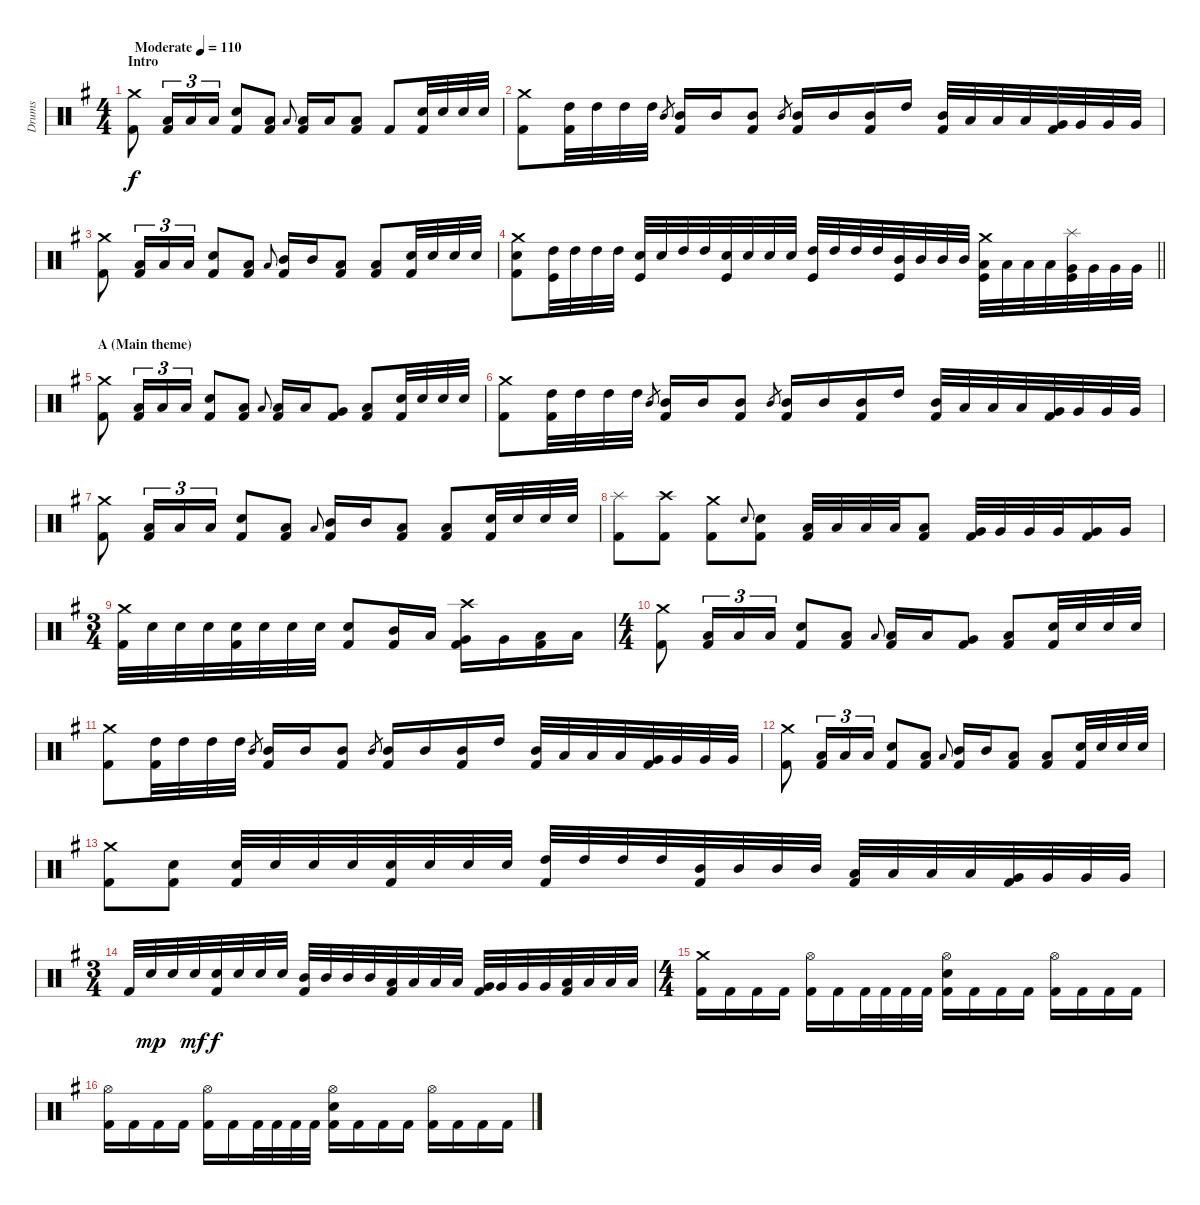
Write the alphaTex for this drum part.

\track ("Drums" "Drums") {instrument percussion}
\staff {score}
\articulation defaults
\ts (4 4)
\section ("" "Intro")
\tempo (110 "Moderate")
\clef neutral
\ks eminor
("Crash medium (hit)" "Kick (hit) 2").8{dy f} ("Low Tom (hit)" "Kick (hit) 2").16{tu (3 2)} "Low Tom (hit)".16{tu (3 2)} "Low Tom (hit)".16{tu (3 2)} ("Electric Snare (hit)" "Kick (hit) 2").8 ("Low Tom (hit)" "Kick (hit) 2").8 "Low Tom (hit)".8{gr onbeat} ("Low Tom (hit)" "Kick (hit) 2").16 "Low Tom (hit)".16 ("Low Tom (hit)" "Kick (hit) 2").8 "Kick (hit) 2".8 ("Snare (hit) 2" "Kick (hit) 2").32 "Snare (hit) 2".32 "Snare (hit) 2".32 "Snare (hit) 2".32 |
("Crash medium (hit)" "Kick (hit) 2").8 ("High Tom (hit)" "Kick (hit) 2").32 "High Tom (hit)".32 "High Tom (hit)".32 "High Tom (hit)".32 "Mid Tom (hit)".8{gr} ("Mid Tom (hit)" "Kick (hit) 2").16 "Mid Tom (hit)".16 ("Mid Tom (hit)" "Kick (hit) 2").8 "Mid Tom (hit)".8{gr} ("Mid Tom (hit)" "Kick (hit) 2").16 "Mid Tom (hit)".16 ("Mid Tom (hit)" "Kick (hit) 2").16 "High Tom (hit)".16 ("Mid Tom (hit)" "Kick (hit) 2").32 "Low Tom (hit)".32 "Low Tom (hit)".32 "Low Tom (hit)".32 ("Very Low Tom (hit)" "Kick (hit) 2").32 "Very Low Tom (hit)".32 "Very Low Tom (hit)".32 "Very Low Tom (hit)".32 |
("Crash medium (hit)" "Kick (hit) 2").8 ("Low Tom (hit)" "Kick (hit) 2").16{tu (3 2)} "Low Tom (hit)".16{tu (3 2)} "Low Tom (hit)".16{tu (3 2)} ("Electric Snare (hit)" "Kick (hit) 2").8 ("Low Tom (hit)" "Kick (hit) 2").8 "Low Tom (hit)".8{gr onbeat} ("Mid Tom (hit)" "Kick (hit) 2").16 "Mid Tom (hit)".16 ("Low Floor Tom (hit)" "Kick (hit) 2").8 ("Low Floor Tom (hit)" "Kick (hit) 2").8 ("Snare (hit) 2" "Kick (hit) 2").32 "Snare (hit) 2".32 "Snare (hit) 2".32 "Snare (hit) 2".32 |
\barLineRight lightlight
("Crash medium (hit)" "Snare (hit) 2" "Kick (hit) 2").8 ("High Tom (hit)" "Kick (hit)").32 "High Tom (hit)".32 "High Tom (hit)".32 "High Tom (hit)".32 ("Electric Snare (hit)" "Kick (hit)").32 "Electric Snare (hit)".32 "High Tom (hit)".32 "High Tom (hit)".32 ("Electric Snare (hit)" "Kick (hit)").32 "Electric Snare (hit)".32 "Electric Snare (hit)".32 "Electric Snare (hit)".32 ("High Tom (hit)" "Kick (hit)").32 "High Tom (hit)".32 "High Tom (hit)".32 "High Tom (hit)".32 ("Mid Tom (hit)" "Kick (hit)").32 "Mid Tom (hit)".32 "Mid Tom (hit)".32 "Mid Tom (hit)".32 ("Crash medium (hit)" "Low Tom (hit)" "Kick (hit)").32 "Low Tom (hit)".32 "Low Tom (hit)".32 "Low Tom (hit)".32 ("Splash (hit)" "Very Low Tom (hit)" "Kick (hit)").32 "Very Low Tom (hit)".32 "Very Low Tom (hit)".32 "Very Low Tom (hit)".32 |
\section ("" "A (Main theme)")
("Crash medium (hit)" "Kick (hit) 2").8 ("Low Tom (hit)" "Kick (hit) 2").16{tu (3 2)} "Low Tom (hit)".16{tu (3 2)} "Low Tom (hit)".16{tu (3 2)} ("Electric Snare (hit)" "Kick (hit) 2").8 ("Low Tom (hit)" "Kick (hit) 2").8 "Low Tom (hit)".8{gr onbeat} ("Low Tom (hit)" "Kick (hit) 2").16 "Low Tom (hit)".16 ("Very Low Tom (hit)" "Kick (hit) 2").8 ("Low Floor Tom (hit)" "Kick (hit) 2").8 ("Snare (hit) 2" "Kick (hit) 2").32 "Snare (hit) 2".32 "Snare (hit) 2".32 "Snare (hit) 2".32 |
("Crash medium (hit)" "Kick (hit) 2").8 ("High Tom (hit)" "Kick (hit) 2").32 "High Tom (hit)".32 "High Tom (hit)".32 "High Tom (hit)".32 "Mid Tom (hit)".8{gr} ("Mid Tom (hit)" "Kick (hit) 2").16 "Mid Tom (hit)".16 ("Mid Tom (hit)" "Kick (hit) 2").8 "Mid Tom (hit)".8{gr} ("Mid Tom (hit)" "Kick (hit) 2").16 "Mid Tom (hit)".16 ("Mid Tom (hit)" "Kick (hit) 2").16 "High Tom (hit)".16 ("Mid Tom (hit)" "Kick (hit) 2").32 "Low Tom (hit)".32 "Low Tom (hit)".32 "Low Tom (hit)".32 ("Very Low Tom (hit)" "Kick (hit) 2").32 "Very Low Tom (hit)".32 "Very Low Tom (hit)".32 "Very Low Tom (hit)".32 |
("Crash medium (hit)" "Kick (hit) 2").8 ("Low Tom (hit)" "Kick (hit) 2").16{tu (3 2)} "Low Tom (hit)".16{tu (3 2)} "Low Tom (hit)".16{tu (3 2)} ("Electric Snare (hit)" "Kick (hit) 2").8 ("Low Tom (hit)" "Kick (hit) 2").8 "Low Tom (hit)".8{gr onbeat} ("Mid Tom (hit)" "Kick (hit) 2").16 "Mid Tom (hit)".16 ("Low Floor Tom (hit)" "Kick (hit) 2").8 ("Low Floor Tom (hit)" "Kick (hit) 2").8 ("Snare (hit) 2" "Kick (hit) 2").32 "Snare (hit) 2".32 "Snare (hit) 2".32 "Snare (hit) 2".32 |
("Splash (hit)" "Kick (hit) 2").8 ("Crash high (hit)" "Kick (hit) 2").8 ("Crash medium (hit)" "Kick (hit) 2").8 "Electric Snare (hit)".8{gr onbeat} ("Electric Snare (hit)" "Kick (hit) 2").8 ("Low Tom (hit)" "Kick (hit) 2").32 "Low Tom (hit)".32 "Low Tom (hit)".32 "Low Tom (hit)".32 ("Low Tom (hit)" "Kick (hit) 2").8 ("Very Low Tom (hit)" "Kick (hit) 2").32 "Very Low Tom (hit)".32 "Very Low Tom (hit)".32 "Very Low Tom (hit)".32 ("Very Low Tom (hit)" "Kick (hit) 2").16 "Very Low Tom (hit)".16 |
\ts (3 4)
("Crash medium (hit)" "Kick (hit) 2").32 "Snare (hit) 2".32 "Snare (hit) 2".32 "Snare (hit) 2".32 ("Snare (hit) 2" "Kick (hit) 2").32 "Snare (hit) 2".32 "Snare (hit) 2".32 "Snare (hit) 2".32 ("Electric Snare (hit)" "Kick (hit) 2").8 ("Mid Tom (hit)" "Kick (hit) 2").16 "Low Tom (hit)".16 ("Crash high (hit)" "Very Low Tom (hit)" "Kick (hit) 2").16 "Very Low Tom (hit)".16 ("Low Floor Tom (hit)" "Kick (hit) 2").16 "Low Floor Tom (hit)".16 |
\ts (4 4)
("Crash medium (hit)" "Kick (hit) 2").8 ("Low Tom (hit)" "Kick (hit) 2").16{tu (3 2)} "Low Tom (hit)".16{tu (3 2)} "Low Tom (hit)".16{tu (3 2)} ("Electric Snare (hit)" "Kick (hit) 2").8 ("Low Tom (hit)" "Kick (hit) 2").8 "Low Tom (hit)".8{gr onbeat} ("Low Tom (hit)" "Kick (hit) 2").16 "Low Tom (hit)".16 ("Very Low Tom (hit)" "Kick (hit) 2").8 ("Low Floor Tom (hit)" "Kick (hit) 2").8 ("Snare (hit) 2" "Kick (hit) 2").32 "Snare (hit) 2".32 "Snare (hit) 2".32 "Snare (hit) 2".32 |
("Crash medium (hit)" "Kick (hit) 2").8 ("High Tom (hit)" "Kick (hit) 2").32 "High Tom (hit)".32 "High Tom (hit)".32 "High Tom (hit)".32 "Mid Tom (hit)".8{gr} ("Mid Tom (hit)" "Kick (hit) 2").16 "Mid Tom (hit)".16 ("Mid Tom (hit)" "Kick (hit) 2").8 "Mid Tom (hit)".8{gr} ("Mid Tom (hit)" "Kick (hit) 2").16 "Mid Tom (hit)".16 ("Mid Tom (hit)" "Kick (hit) 2").16 "High Tom (hit)".16 ("Mid Tom (hit)" "Kick (hit) 2").32 "Low Tom (hit)".32 "Low Tom (hit)".32 "Low Tom (hit)".32 ("Very Low Tom (hit)" "Kick (hit) 2").32 "Very Low Tom (hit)".32 "Very Low Tom (hit)".32 "Very Low Tom (hit)".32 |
("Crash medium (hit)" "Kick (hit) 2").8 ("Low Tom (hit)" "Kick (hit) 2").16{tu (3 2)} "Low Tom (hit)".16{tu (3 2)} "Low Tom (hit)".16{tu (3 2)} ("Electric Snare (hit)" "Kick (hit) 2").8 ("Low Tom (hit)" "Kick (hit) 2").8 "Low Tom (hit)".8{gr onbeat} ("Mid Tom (hit)" "Kick (hit) 2").16 "Mid Tom (hit)".16 ("Low Floor Tom (hit)" "Kick (hit) 2").8 ("Low Floor Tom (hit)" "Kick (hit) 2").8 ("Snare (hit) 2" "Kick (hit) 2").32 "Snare (hit) 2".32 "Snare (hit) 2".32 "Snare (hit) 2".32 |
("Crash medium (hit)" "Kick (hit) 2").8 ("Snare (hit) 2" "Kick (hit) 2").8 ("Snare (hit) 2" "Kick (hit) 2").32 "Snare (hit) 2".32 "Snare (hit) 2".32 "Snare (hit) 2".32 ("Snare (hit) 2" "Kick (hit) 2").32 "Snare (hit) 2".32 "Snare (hit) 2".32 "Snare (hit) 2".32 ("High Tom (hit)" "Kick (hit) 2").32 "High Tom (hit)".32 "High Tom (hit)".32 "High Tom (hit)".32 ("Mid Tom (hit)" "Kick (hit) 2").32 "Mid Tom (hit)".32 "Mid Tom (hit)".32 "Mid Tom (hit)".32 ("Low Tom (hit)" "Kick (hit) 2").32 "Low Tom (hit)".32 "Low Tom (hit)".32 "Low Tom (hit)".32 ("Very Low Tom (hit)" "Kick (hit) 2").32 "Very Low Tom (hit)".32 "Very Low Tom (hit)".32 "Very Low Tom (hit)".32 |
\ts (3 4)
"Kick (hit) 2".32 "Snare (hit) 2".32{dy mp} "Snare (hit) 2".32 "Snare (hit) 2".32{dy mf} ("Snare (hit) 2" "Kick (hit) 2").32{dy f} "Snare (hit) 2".32 "Snare (hit) 2".32 "Snare (hit) 2".32 ("Mid Tom (hit)" "Kick (hit) 2").32 "Mid Tom (hit)".32 "Mid Tom (hit)".32 "Mid Tom (hit)".32 ("Low Tom (hit)" "Kick (hit) 2").32 "Low Tom (hit)".32 "Low Tom (hit)".32 "Low Tom (hit)".32 ("Very Low Tom (hit)" "Kick (hit) 2").32 "Very Low Tom (hit)".32 "Very Low Tom (hit)".32 "Very Low Tom (hit)".32 ("Low Floor Tom (hit)" "Kick (hit) 2").32 "Low Floor Tom (hit)".32 "Low Floor Tom (hit)".32 "Low Floor Tom (hit)".32 |
\ts (4 4)
("Crash medium (hit)" "Kick (hit) 2").16 "Kick (hit) 2".16 "Kick (hit) 2".16 "Kick (hit) 2".16 ("Hi-Hat (open)" "Kick (hit) 2").16 "Kick (hit) 2".16 "Kick (hit) 2".32 "Kick (hit) 2".32 "Kick (hit) 2".32 "Kick (hit) 2".32 ("Hi-Hat (open)" "Electric Snare (hit)" "Kick (hit) 2").16 "Kick (hit) 2".16 "Kick (hit) 2".16 "Kick (hit) 2".16 ("Hi-Hat (open)" "Kick (hit) 2").16 "Kick (hit) 2".16 "Kick (hit) 2".16 "Kick (hit) 2".16 |
("Hi-Hat (open)" "Kick (hit) 2").16 "Kick (hit) 2".16 "Kick (hit) 2".16 "Kick (hit) 2".16 ("Hi-Hat (open)" "Kick (hit) 2").16 "Kick (hit) 2".16 "Kick (hit) 2".32 "Kick (hit) 2".32 "Kick (hit) 2".32 "Kick (hit) 2".32 ("Hi-Hat (open)" "Electric Snare (hit)" "Kick (hit) 2").16 "Kick (hit) 2".16 "Kick (hit) 2".16 "Kick (hit) 2".16 ("Hi-Hat (open)" "Kick (hit) 2").16 "Kick (hit) 2".16 "Kick (hit) 2".16 "Kick (hit) 2".16
